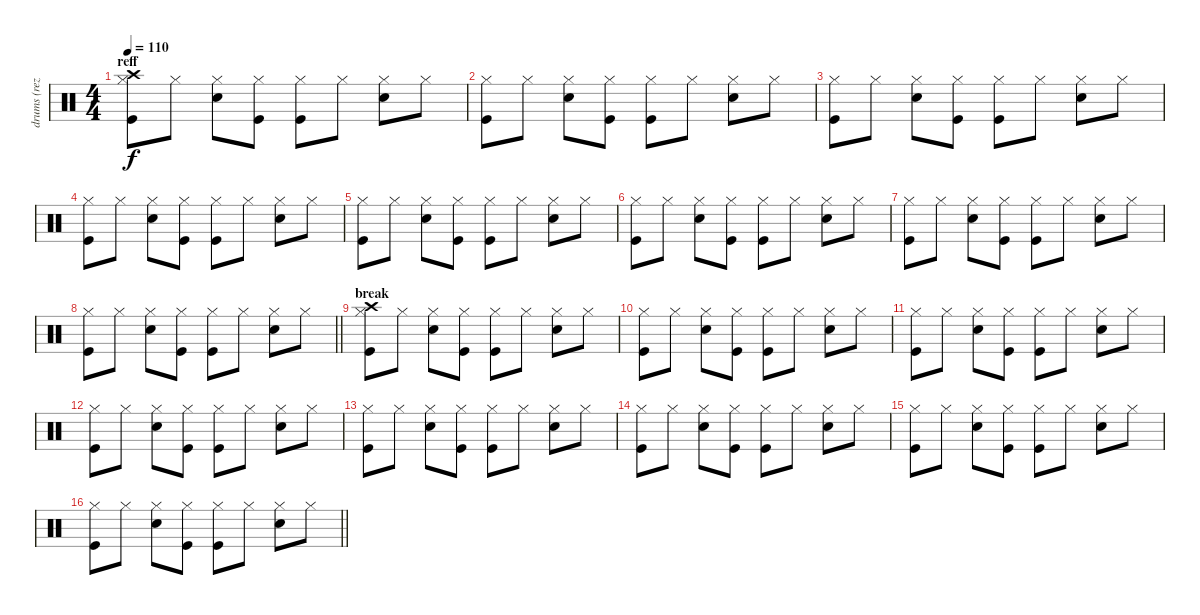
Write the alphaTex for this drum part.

\track ("drums (reza)" "drums (rez") {instrument percussion}
\staff {score}
\articulation defaults
\ts (4 4)
\section ("" "reff")
\tempo 110
\clef neutral
\ks c
("Hi-Hat (closed)" "Kick (hit)" "Crash high (hit)").8{dy f} "Hi-Hat (closed)".8 ("Hi-Hat (closed)" "Snare (hit) 2").8 ("Hi-Hat (closed)" "Kick (hit)").8 ("Hi-Hat (closed)" "Kick (hit)").8 "Hi-Hat (closed)".8 ("Hi-Hat (closed)" "Snare (hit) 2").8 "Hi-Hat (closed)".8 |
("Hi-Hat (closed)" "Kick (hit)").8 "Hi-Hat (closed)".8 ("Hi-Hat (closed)" "Snare (hit) 2").8 ("Hi-Hat (closed)" "Kick (hit)").8 ("Hi-Hat (closed)" "Kick (hit)").8 "Hi-Hat (closed)".8 ("Hi-Hat (closed)" "Snare (hit) 2").8 "Hi-Hat (closed)".8 |
("Hi-Hat (closed)" "Kick (hit)").8 "Hi-Hat (closed)".8 ("Hi-Hat (closed)" "Snare (hit) 2").8 ("Hi-Hat (closed)" "Kick (hit)").8 ("Hi-Hat (closed)" "Kick (hit)").8 "Hi-Hat (closed)".8 ("Hi-Hat (closed)" "Snare (hit) 2").8 "Hi-Hat (closed)".8 |
("Hi-Hat (closed)" "Kick (hit)").8 "Hi-Hat (closed)".8 ("Hi-Hat (closed)" "Snare (hit) 2").8 ("Hi-Hat (closed)" "Kick (hit)").8 ("Hi-Hat (closed)" "Kick (hit)").8 "Hi-Hat (closed)".8 ("Hi-Hat (closed)" "Snare (hit) 2").8 "Hi-Hat (closed)".8 |
("Hi-Hat (closed)" "Kick (hit)").8 "Hi-Hat (closed)".8 ("Hi-Hat (closed)" "Snare (hit) 2").8 ("Hi-Hat (closed)" "Kick (hit)").8 ("Hi-Hat (closed)" "Kick (hit)").8 "Hi-Hat (closed)".8 ("Hi-Hat (closed)" "Snare (hit) 2").8 "Hi-Hat (closed)".8 |
("Hi-Hat (closed)" "Kick (hit)").8 "Hi-Hat (closed)".8 ("Hi-Hat (closed)" "Snare (hit) 2").8 ("Hi-Hat (closed)" "Kick (hit)").8 ("Hi-Hat (closed)" "Kick (hit)").8 "Hi-Hat (closed)".8 ("Hi-Hat (closed)" "Snare (hit) 2").8 "Hi-Hat (closed)".8 |
("Hi-Hat (closed)" "Kick (hit)").8 "Hi-Hat (closed)".8 ("Hi-Hat (closed)" "Snare (hit) 2").8 ("Hi-Hat (closed)" "Kick (hit)").8 ("Hi-Hat (closed)" "Kick (hit)").8 "Hi-Hat (closed)".8 ("Hi-Hat (closed)" "Snare (hit) 2").8 "Hi-Hat (closed)".8 |
\barLineRight lightlight
("Hi-Hat (closed)" "Kick (hit)").8 "Hi-Hat (closed)".8 ("Hi-Hat (closed)" "Snare (hit) 2").8 ("Hi-Hat (closed)" "Kick (hit)").8 ("Hi-Hat (closed)" "Kick (hit)").8 "Hi-Hat (closed)".8 ("Hi-Hat (closed)" "Snare (hit) 2").8 "Hi-Hat (closed)".8 |
\section ("" "break")
("Hi-Hat (closed)" "Kick (hit)" "Crash high (hit)").8 "Hi-Hat (closed)".8 ("Hi-Hat (closed)" "Snare (hit) 2").8 ("Hi-Hat (closed)" "Kick (hit)").8 ("Hi-Hat (closed)" "Kick (hit)").8 "Hi-Hat (closed)".8 ("Hi-Hat (closed)" "Snare (hit) 2").8 "Hi-Hat (closed)".8 |
("Hi-Hat (closed)" "Kick (hit)").8 "Hi-Hat (closed)".8 ("Hi-Hat (closed)" "Snare (hit) 2").8 ("Hi-Hat (closed)" "Kick (hit)").8 ("Hi-Hat (closed)" "Kick (hit)").8 "Hi-Hat (closed)".8 ("Hi-Hat (closed)" "Snare (hit) 2").8 "Hi-Hat (closed)".8 |
("Hi-Hat (closed)" "Kick (hit)").8 "Hi-Hat (closed)".8 ("Hi-Hat (closed)" "Snare (hit) 2").8 ("Hi-Hat (closed)" "Kick (hit)").8 ("Hi-Hat (closed)" "Kick (hit)").8 "Hi-Hat (closed)".8 ("Hi-Hat (closed)" "Snare (hit) 2").8 "Hi-Hat (closed)".8 |
("Hi-Hat (closed)" "Kick (hit)").8 "Hi-Hat (closed)".8 ("Hi-Hat (closed)" "Snare (hit) 2").8 ("Hi-Hat (closed)" "Kick (hit)").8 ("Hi-Hat (closed)" "Kick (hit)").8 "Hi-Hat (closed)".8 ("Hi-Hat (closed)" "Snare (hit) 2").8 "Hi-Hat (closed)".8 |
("Hi-Hat (closed)" "Kick (hit)").8 "Hi-Hat (closed)".8 ("Hi-Hat (closed)" "Snare (hit) 2").8 ("Hi-Hat (closed)" "Kick (hit)").8 ("Hi-Hat (closed)" "Kick (hit)").8 "Hi-Hat (closed)".8 ("Hi-Hat (closed)" "Snare (hit) 2").8 "Hi-Hat (closed)".8 |
("Hi-Hat (closed)" "Kick (hit)").8 "Hi-Hat (closed)".8 ("Hi-Hat (closed)" "Snare (hit) 2").8 ("Hi-Hat (closed)" "Kick (hit)").8 ("Hi-Hat (closed)" "Kick (hit)").8 "Hi-Hat (closed)".8 ("Hi-Hat (closed)" "Snare (hit) 2").8 "Hi-Hat (closed)".8 |
("Hi-Hat (closed)" "Kick (hit)").8 "Hi-Hat (closed)".8 ("Hi-Hat (closed)" "Snare (hit) 2").8 ("Hi-Hat (closed)" "Kick (hit)").8 ("Hi-Hat (closed)" "Kick (hit)").8 "Hi-Hat (closed)".8 ("Hi-Hat (closed)" "Snare (hit) 2").8 "Hi-Hat (closed)".8 |
\barLineRight lightlight
("Hi-Hat (closed)" "Kick (hit)").8 "Hi-Hat (closed)".8 ("Hi-Hat (closed)" "Snare (hit) 2").8 ("Hi-Hat (closed)" "Kick (hit)").8 ("Hi-Hat (closed)" "Kick (hit)").8 "Hi-Hat (closed)".8 ("Hi-Hat (closed)" "Snare (hit) 2").8 "Hi-Hat (closed)".8
